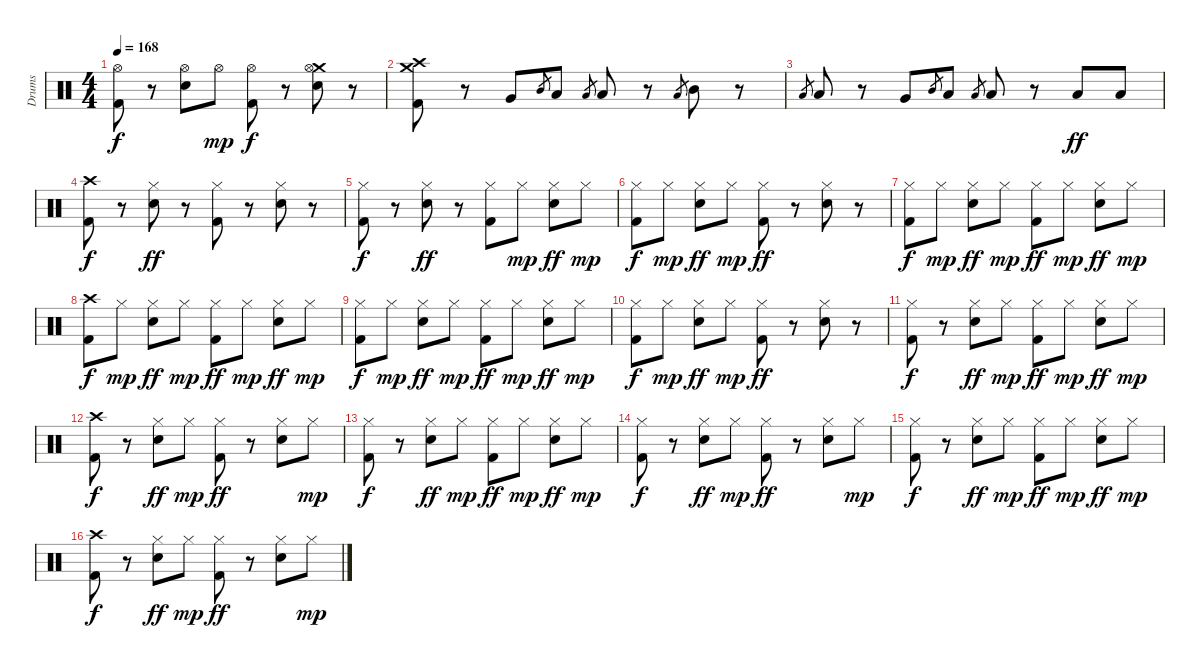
\track ("Drums" "Drums") {instrument percussion}
\staff {score}
\articulation defaults
\ts (4 4)
\tempo 168
\clef neutral
\ks c
("Hi-Hat (open)" "Kick (hit) 2").8{dy f} r.8 ("Hi-Hat (open)" "Electric Snare (hit)").8 "Hi-Hat (open)".8{dy mp} ("Hi-Hat (open)" "Kick (hit) 2").8{dy f} r.8 ("Crash medium (hit)" "Hi-Hat (open)" "Electric Snare (hit)").8 r.8 |
("Crash high (hit)" "Crash medium (hit)" "Kick (hit) 2").8 r.8 "Very Low Tom (hit)".8 "Mid Tom (hit)".8{gr} "Low Tom (hit)".8 "Low Tom (hit)".8{gr} "Low Tom (hit)".8 r.8 "Low Tom (hit)".8{gr} "Mid Tom (hit)".8 r.8 |
"Low Tom (hit)".8{gr} "Low Tom (hit)".8 r.8 "Very Low Tom (hit)".8 "Mid Tom (hit)".8{gr} "Low Tom (hit)".8 "Low Tom (hit)".8{gr} "Low Tom (hit)".8 r.8 "Low Tom (hit)".8{dy ff} "Low Tom (hit)".8 |
("Crash high (hit)" "Kick (hit) 2").8{dy f} r.8 ("Hi-Hat (closed)" "Electric Snare (hit)").8{dy ff} r.8 ("Hi-Hat (closed)" "Kick (hit) 2").8 r.8 ("Hi-Hat (closed)" "Electric Snare (hit)").8 r.8 |
("Hi-Hat (closed)" "Kick (hit) 2").8{dy f} r.8 ("Hi-Hat (closed)" "Electric Snare (hit)").8{dy ff} r.8 ("Hi-Hat (closed)" "Kick (hit) 2").8 "Hi-Hat (closed)".8{dy mp} ("Hi-Hat (closed)" "Electric Snare (hit)").8{dy ff} "Hi-Hat (closed)".8{dy mp} |
("Hi-Hat (closed)" "Kick (hit) 2").8{dy f} "Hi-Hat (closed)".8{dy mp} ("Hi-Hat (closed)" "Electric Snare (hit)").8{dy ff} "Hi-Hat (closed)".8{dy mp} ("Hi-Hat (closed)" "Kick (hit) 2").8{dy ff} r.8 ("Hi-Hat (closed)" "Electric Snare (hit)").8 r.8 |
("Hi-Hat (closed)" "Kick (hit) 2").8{dy f} "Hi-Hat (closed)".8{dy mp} ("Hi-Hat (closed)" "Electric Snare (hit)").8{dy ff} "Hi-Hat (closed)".8{dy mp} ("Hi-Hat (closed)" "Kick (hit) 2").8{dy ff} "Hi-Hat (closed)".8{dy mp} ("Hi-Hat (closed)" "Electric Snare (hit)").8{dy ff} "Hi-Hat (closed)".8{dy mp} |
("Crash high (hit)" "Kick (hit) 2").8{dy f} "Hi-Hat (closed)".8{dy mp} ("Hi-Hat (closed)" "Electric Snare (hit)").8{dy ff} "Hi-Hat (closed)".8{dy mp} ("Hi-Hat (closed)" "Kick (hit) 2").8{dy ff} "Hi-Hat (closed)".8{dy mp} ("Hi-Hat (closed)" "Electric Snare (hit)").8{dy ff} "Hi-Hat (closed)".8{dy mp} |
("Hi-Hat (closed)" "Kick (hit) 2").8{dy f} "Hi-Hat (closed)".8{dy mp} ("Hi-Hat (closed)" "Electric Snare (hit)").8{dy ff} "Hi-Hat (closed)".8{dy mp} ("Hi-Hat (closed)" "Kick (hit) 2").8{dy ff} "Hi-Hat (closed)".8{dy mp} ("Hi-Hat (closed)" "Electric Snare (hit)").8{dy ff} "Hi-Hat (closed)".8{dy mp} |
("Hi-Hat (closed)" "Kick (hit) 2").8{dy f} "Hi-Hat (closed)".8{dy mp} ("Hi-Hat (closed)" "Electric Snare (hit)").8{dy ff} "Hi-Hat (closed)".8{dy mp} ("Hi-Hat (closed)" "Kick (hit) 2").8{dy ff} r.8 ("Hi-Hat (closed)" "Electric Snare (hit)").8 r.8 |
("Hi-Hat (closed)" "Kick (hit) 2").8{dy f} r.8 ("Hi-Hat (closed)" "Electric Snare (hit)").8{dy ff} "Hi-Hat (closed)".8{dy mp} ("Hi-Hat (closed)" "Kick (hit) 2").8{dy ff} "Hi-Hat (closed)".8{dy mp} ("Hi-Hat (closed)" "Electric Snare (hit)").8{dy ff} "Hi-Hat (closed)".8{dy mp} |
("Crash high (hit)" "Kick (hit) 2").8{dy f} r.8 ("Hi-Hat (closed)" "Electric Snare (hit)").8{dy ff} "Hi-Hat (closed)".8{dy mp} ("Hi-Hat (closed)" "Kick (hit) 2").8{dy ff} r.8 ("Hi-Hat (closed)" "Electric Snare (hit)").8 "Hi-Hat (closed)".8{dy mp} |
("Hi-Hat (closed)" "Kick (hit) 2").8{dy f} r.8 ("Hi-Hat (closed)" "Electric Snare (hit)").8{dy ff} "Hi-Hat (closed)".8{dy mp} ("Hi-Hat (closed)" "Kick (hit) 2").8{dy ff} "Hi-Hat (closed)".8{dy mp} ("Hi-Hat (closed)" "Electric Snare (hit)").8{dy ff} "Hi-Hat (closed)".8{dy mp} |
("Hi-Hat (closed)" "Kick (hit) 2").8{dy f} r.8 ("Hi-Hat (closed)" "Electric Snare (hit)").8{dy ff} "Hi-Hat (closed)".8{dy mp} ("Hi-Hat (closed)" "Kick (hit) 2").8{dy ff} r.8 ("Hi-Hat (closed)" "Electric Snare (hit)").8 "Hi-Hat (closed)".8{dy mp} |
("Hi-Hat (closed)" "Kick (hit) 2").8{dy f} r.8 ("Hi-Hat (closed)" "Electric Snare (hit)").8{dy ff} "Hi-Hat (closed)".8{dy mp} ("Hi-Hat (closed)" "Kick (hit) 2").8{dy ff} "Hi-Hat (closed)".8{dy mp} ("Hi-Hat (closed)" "Electric Snare (hit)").8{dy ff} "Hi-Hat (closed)".8{dy mp} |
("Crash high (hit)" "Kick (hit) 2").8{dy f} r.8 ("Hi-Hat (closed)" "Electric Snare (hit)").8{dy ff} "Hi-Hat (closed)".8{dy mp} ("Hi-Hat (closed)" "Kick (hit) 2").8{dy ff} r.8 ("Hi-Hat (closed)" "Electric Snare (hit)").8 "Hi-Hat (closed)".8{dy mp}
